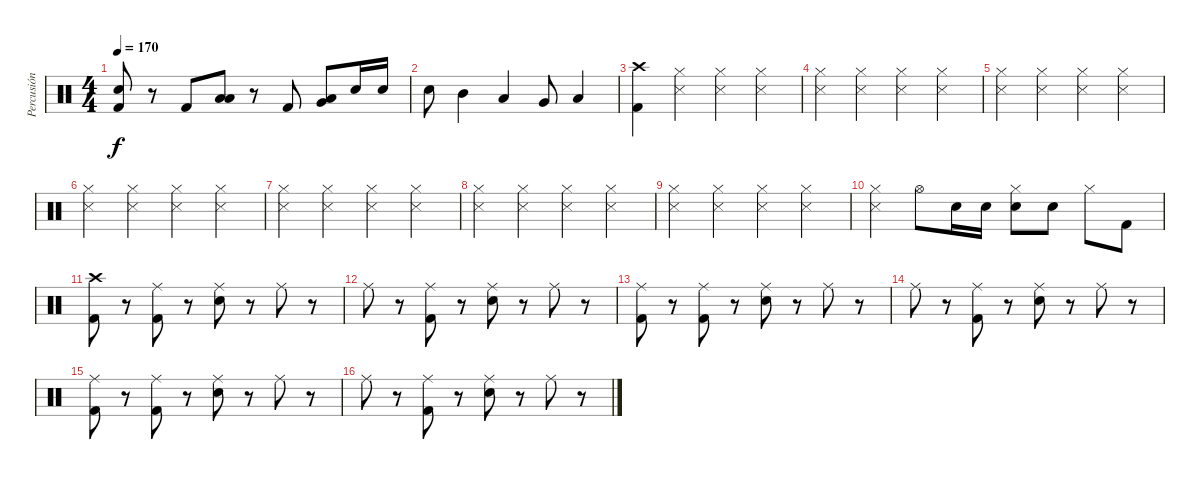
\track ("Percusión" "Percusión") {instrument percussion}
\staff {score}
\articulation defaults
\ts (4 4)
\tempo 170
\clef neutral
\ks c
("Kick (hit) 2" "Snare (hit) 2").8{dy f} r.8 "Kick (hit) 2".8 ("Low Tom (hit)" "Low Floor Tom (hit)").8 r.8 "Kick (hit) 2".8 ("Very Low Tom (hit)" "Low Floor Tom (hit)").8 "Snare (hit) 2".16 "Snare (hit) 2".16 |
"Snare (hit) 2".8 "Mid Tom (hit)".4 "Low Tom (hit)".4 "Very Low Tom (hit)".8 "Low Floor Tom (hit)".4 |
("Kick (hit) 2" "Crash high (hit)").4 ("Snare (side stick) 3" "Hi-Hat (closed)").4 ("Snare (side stick) 3" "Hi-Hat (closed)").4 ("Snare (side stick) 3" "Hi-Hat (closed)").4 |
("Snare (side stick) 3" "Hi-Hat (closed)").4 ("Snare (side stick) 3" "Hi-Hat (closed)").4 ("Snare (side stick) 3" "Hi-Hat (closed)").4 ("Snare (side stick) 3" "Hi-Hat (closed)").4 |
("Snare (side stick) 3" "Hi-Hat (closed)").4 ("Snare (side stick) 3" "Hi-Hat (closed)").4 ("Snare (side stick) 3" "Hi-Hat (closed)").4 ("Snare (side stick) 3" "Hi-Hat (closed)").4 |
("Snare (side stick) 3" "Hi-Hat (closed)").4 ("Snare (side stick) 3" "Hi-Hat (closed)").4 ("Snare (side stick) 3" "Hi-Hat (closed)").4 ("Snare (side stick) 3" "Hi-Hat (closed)").4 |
("Snare (side stick) 3" "Hi-Hat (closed)").4 ("Snare (side stick) 3" "Hi-Hat (closed)").4 ("Snare (side stick) 3" "Hi-Hat (closed)").4 ("Snare (side stick) 3" "Hi-Hat (closed)").4 |
("Snare (side stick) 3" "Hi-Hat (closed)").4 ("Snare (side stick) 3" "Hi-Hat (closed)").4 ("Snare (side stick) 3" "Hi-Hat (closed)").4 ("Snare (side stick) 3" "Hi-Hat (closed)").4 |
("Snare (side stick) 3" "Hi-Hat (closed)").4 ("Snare (side stick) 3" "Hi-Hat (closed)").4 ("Snare (side stick) 3" "Hi-Hat (closed)").4 ("Snare (side stick) 3" "Hi-Hat (closed)").4 |
("Snare (side stick) 3" "Hi-Hat (closed)").4 "Hi-Hat (open)".8 "Snare (hit) 2".16 "Snare (hit) 2".16 ("Snare (hit) 2" "Hi-Hat (closed)").8 "Snare (hit) 2".8 "Hi-Hat (closed)".8 "Kick (hit) 2".8 |
("Kick (hit) 2" "Crash high (hit)").8 r.8 ("Kick (hit) 2" "Ride (middle)").8 r.8 ("Snare (hit) 2" "Ride (middle)").8 r.8 "Ride (middle)".8 r.8 |
"Ride (middle)".8 r.8 ("Kick (hit) 2" "Ride (middle)").8 r.8 ("Snare (hit) 2" "Ride (middle)").8 r.8 "Ride (middle)".8 r.8 |
("Kick (hit) 2" "Ride (middle)").8 r.8 ("Kick (hit) 2" "Ride (middle)").8 r.8 ("Snare (hit) 2" "Ride (middle)").8 r.8 "Ride (middle)".8 r.8 |
"Ride (middle)".8 r.8 ("Kick (hit) 2" "Ride (middle)").8 r.8 ("Snare (hit) 2" "Ride (middle)").8 r.8 "Ride (middle)".8 r.8 |
("Kick (hit) 2" "Ride (middle)").8 r.8 ("Kick (hit) 2" "Ride (middle)").8 r.8 ("Snare (hit) 2" "Ride (middle)").8 r.8 "Ride (middle)".8 r.8 |
"Ride (middle)".8 r.8 ("Kick (hit) 2" "Ride (middle)").8 r.8 ("Snare (hit) 2" "Ride (middle)").8 r.8 "Ride (middle)".8 r.8
